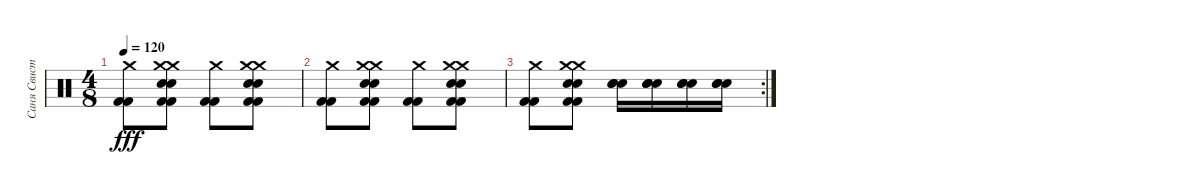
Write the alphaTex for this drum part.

\track ("Саня Свистун - Drums" "Саня Свист") {instrument percussion}
\staff {score}
\articulation defaults
\ts (4 8)
\tempo 120
\clef neutral
\ks c
("Kick (hit) 2" "Crash medium (hit)" "Kick (hit) 2").8{dy fff} ("Kick (hit) 2" "Crash medium (hit)" "Electric Snare (hit)" "Electric Snare (hit)" "Crash medium (hit)" "Kick (hit) 2").8 ("Kick (hit) 2" "Crash medium (hit)" "Kick (hit) 2").8 ("Kick (hit) 2" "Crash medium (hit)" "Crash medium (hit)" "Electric Snare (hit)" "Electric Snare (hit)" "Kick (hit) 2").8 |
("Kick (hit) 2" "Crash medium (hit)" "Kick (hit) 2").8 ("Kick (hit) 2" "Crash medium (hit)" "Electric Snare (hit)" "Electric Snare (hit)" "Crash medium (hit)" "Kick (hit) 2").8 ("Kick (hit) 2" "Crash medium (hit)" "Kick (hit) 2").8 ("Kick (hit) 2" "Crash medium (hit)" "Crash medium (hit)" "Electric Snare (hit)" "Electric Snare (hit)" "Kick (hit) 2").8 |
\rc 2
("Kick (hit) 2" "Crash medium (hit)" "Kick (hit) 2").8 ("Kick (hit) 2" "Crash medium (hit)" "Electric Snare (hit)" "Electric Snare (hit)" "Crash medium (hit)" "Kick (hit) 2").8 ("Electric Snare (hit)" "Electric Snare (hit)" "Electric Snare (hit)").16 ("Electric Snare (hit)" "Electric Snare (hit)" "Electric Snare (hit)").16 ("Electric Snare (hit)" "Electric Snare (hit)" "Electric Snare (hit)").16 ("Electric Snare (hit)" "Electric Snare (hit)" "Electric Snare (hit)").16
